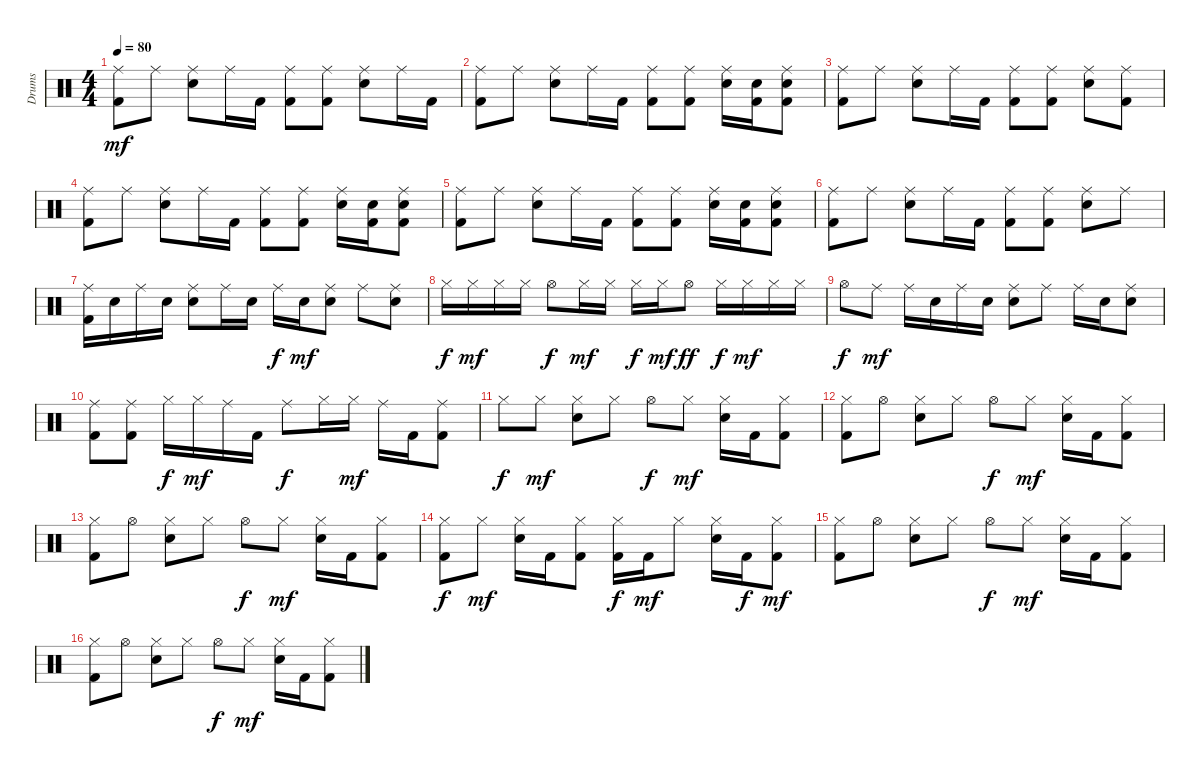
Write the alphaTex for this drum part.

\track ("Drums" "Drums") {instrument percussion}
\staff {score}
\articulation defaults
\ts (4 4)
\tempo 80
\clef neutral
\ks c
("Ride (middle)" "Kick (hit) 2").8{dy mf} "Ride (middle)".8 ("Ride (middle)" "Electric Snare (hit)").8 "Ride (middle)".16 "Kick (hit) 2".16 ("Ride (middle)" "Kick (hit) 2").8 ("Ride (middle)" "Kick (hit) 2").8 ("Ride (middle)" "Electric Snare (hit)").8 "Ride (middle)".16 "Kick (hit) 2".16 |
("Ride (middle)" "Kick (hit) 2").8 "Ride (middle)".8 ("Ride (middle)" "Electric Snare (hit)").8 "Ride (middle)".16 "Kick (hit) 2".16 ("Ride (middle)" "Kick (hit) 2").8 ("Ride (middle)" "Kick (hit) 2").8 ("Ride (middle)" "Electric Snare (hit)").16 ("Electric Snare (hit)" "Kick (hit) 2").16 ("Ride (middle)" "Electric Snare (hit)" "Kick (hit) 2").8 |
("Ride (middle)" "Kick (hit) 2").8 "Ride (middle)".8 ("Ride (middle)" "Electric Snare (hit)").8 "Ride (middle)".16 "Kick (hit) 2".16 ("Ride (middle)" "Kick (hit) 2").8 ("Ride (middle)" "Kick (hit) 2").8 ("Ride (middle)" "Electric Snare (hit)").8 ("Ride (middle)" "Kick (hit) 2").8 |
("Ride (middle)" "Kick (hit) 2").8 "Ride (middle)".8 ("Ride (middle)" "Electric Snare (hit)").8 "Ride (middle)".16 "Kick (hit) 2".16 ("Ride (middle)" "Kick (hit) 2").8 ("Ride (middle)" "Kick (hit) 2").8 ("Ride (middle)" "Electric Snare (hit)").16 ("Electric Snare (hit)" "Kick (hit) 2").16 ("Ride (middle)" "Electric Snare (hit)" "Kick (hit) 2").8 |
("Ride (middle)" "Kick (hit) 2").8 "Ride (middle)".8 ("Ride (middle)" "Electric Snare (hit)").8 "Ride (middle)".16 "Kick (hit) 2".16 ("Ride (middle)" "Kick (hit) 2").8 ("Ride (middle)" "Kick (hit) 2").8 ("Ride (middle)" "Electric Snare (hit)").16 ("Electric Snare (hit)" "Kick (hit) 2").16 ("Ride (middle)" "Electric Snare (hit)" "Kick (hit) 2").8 |
("Ride (middle)" "Kick (hit) 2").8 "Ride (middle)".8 ("Ride (middle)" "Electric Snare (hit)").8 "Ride (middle)".16 "Kick (hit) 2".16 ("Ride (middle)" "Kick (hit) 2").8 ("Ride (middle)" "Kick (hit) 2").8 ("Ride (middle)" "Electric Snare (hit)").8 "Ride (middle)".8 |
("Ride (middle)" "Kick (hit) 2").16 "Electric Snare (hit)".16 "Ride (middle)".16 "Electric Snare (hit)".16 ("Ride (middle)" "Electric Snare (hit)").8 "Ride (middle)".16 "Electric Snare (hit)".16 "Ride (middle)".16{dy f} "Electric Snare (hit)".16{dy mf} ("Ride (middle)" "Electric Snare (hit)").8 "Ride (middle)".8 ("Ride (middle)" "Electric Snare (hit)").8 |
"Hi-Hat (closed)".16{dy f} "Hi-Hat (closed)".16{dy mf} "Hi-Hat (closed)".16 "Hi-Hat (closed)".16 "Hi-Hat (open)".8{dy f} "Hi-Hat (closed)".16{dy mf} "Hi-Hat (closed)".16 "Hi-Hat (closed)".16{dy f} "Hi-Hat (closed)".16{dy mf} "Hi-Hat (open)".8{dy ff} "Hi-Hat (closed)".16{dy f} "Hi-Hat (closed)".16{dy mf} "Hi-Hat (closed)".16 "Hi-Hat (closed)".16 |
"Hi-Hat (open)".8{dy f} "Ride (middle)".8{dy mf} "Ride (middle)".16 "Electric Snare (hit)".16 "Ride (middle)".16 "Electric Snare (hit)".16 ("Ride (middle)" "Electric Snare (hit)").8 "Ride (middle)".8 "Ride (middle)".16 "Electric Snare (hit)".16 ("Ride (middle)" "Electric Snare (hit)").8 |
("Ride (middle)" "Kick (hit) 2").8 ("Ride (middle)" "Kick (hit) 2").8 "Hi-Hat (closed)".16{dy f} "Hi-Hat (closed)".16{dy mf} "Ride (middle)".16 "Kick (hit) 2".16 "Ride (middle)".8{dy f} "Hi-Hat (closed)".16 "Hi-Hat (closed)".16{dy mf} "Ride (middle)".16 "Kick (hit) 2".16 ("Ride (middle)" "Kick (hit) 2").8 |
"Hi-Hat (closed)".8{dy f} "Hi-Hat (closed)".8{dy mf} ("Hi-Hat (closed)" "Electric Snare (hit)").8 "Hi-Hat (closed)".8 "Hi-Hat (open)".8{dy f} "Hi-Hat (closed)".8{dy mf} ("Hi-Hat (closed)" "Electric Snare (hit)").16 "Kick (hit) 2".16 ("Hi-Hat (closed)" "Kick (hit) 2").8 |
("Hi-Hat (closed)" "Kick (hit) 2").8 "Hi-Hat (open)".8 ("Hi-Hat (closed)" "Electric Snare (hit)").8 "Hi-Hat (closed)".8 "Hi-Hat (open)".8{dy f} "Hi-Hat (closed)".8{dy mf} ("Hi-Hat (closed)" "Electric Snare (hit)").16 "Kick (hit) 2".16 ("Hi-Hat (closed)" "Kick (hit) 2").8 |
("Hi-Hat (closed)" "Kick (hit) 2").8 "Hi-Hat (open)".8 ("Hi-Hat (closed)" "Electric Snare (hit)").8 "Hi-Hat (closed)".8 "Hi-Hat (open)".8{dy f} "Hi-Hat (closed)".8{dy mf} ("Hi-Hat (closed)" "Electric Snare (hit)").16 "Kick (hit) 2".16 ("Hi-Hat (closed)" "Kick (hit) 2").8 |
("Hi-Hat (closed)" "Kick (hit) 2").8{dy f} "Hi-Hat (closed)".8{dy mf} ("Hi-Hat (closed)" "Electric Snare (hit)").16 "Kick (hit) 2".16 ("Hi-Hat (closed)" "Kick (hit) 2").8 ("Hi-Hat (closed)" "Kick (hit) 2").16{dy f} "Kick (hit) 2".16{dy mf} "Hi-Hat (closed)".8 ("Hi-Hat (closed)" "Electric Snare (hit)").16 "Kick (hit) 2".16{dy f} ("Hi-Hat (closed)" "Kick (hit) 2").8{dy mf} |
("Hi-Hat (closed)" "Kick (hit) 2").8 "Hi-Hat (open)".8 ("Hi-Hat (closed)" "Electric Snare (hit)").8 "Hi-Hat (closed)".8 "Hi-Hat (open)".8{dy f} "Hi-Hat (closed)".8{dy mf} ("Hi-Hat (closed)" "Electric Snare (hit)").16 "Kick (hit) 2".16 ("Hi-Hat (closed)" "Kick (hit) 2").8 |
("Hi-Hat (closed)" "Kick (hit) 2").8 "Hi-Hat (open)".8 ("Hi-Hat (closed)" "Electric Snare (hit)").8 "Hi-Hat (closed)".8 "Hi-Hat (open)".8{dy f} "Hi-Hat (closed)".8{dy mf} ("Hi-Hat (closed)" "Electric Snare (hit)").16 "Kick (hit) 2".16 ("Hi-Hat (closed)" "Kick (hit) 2").8
